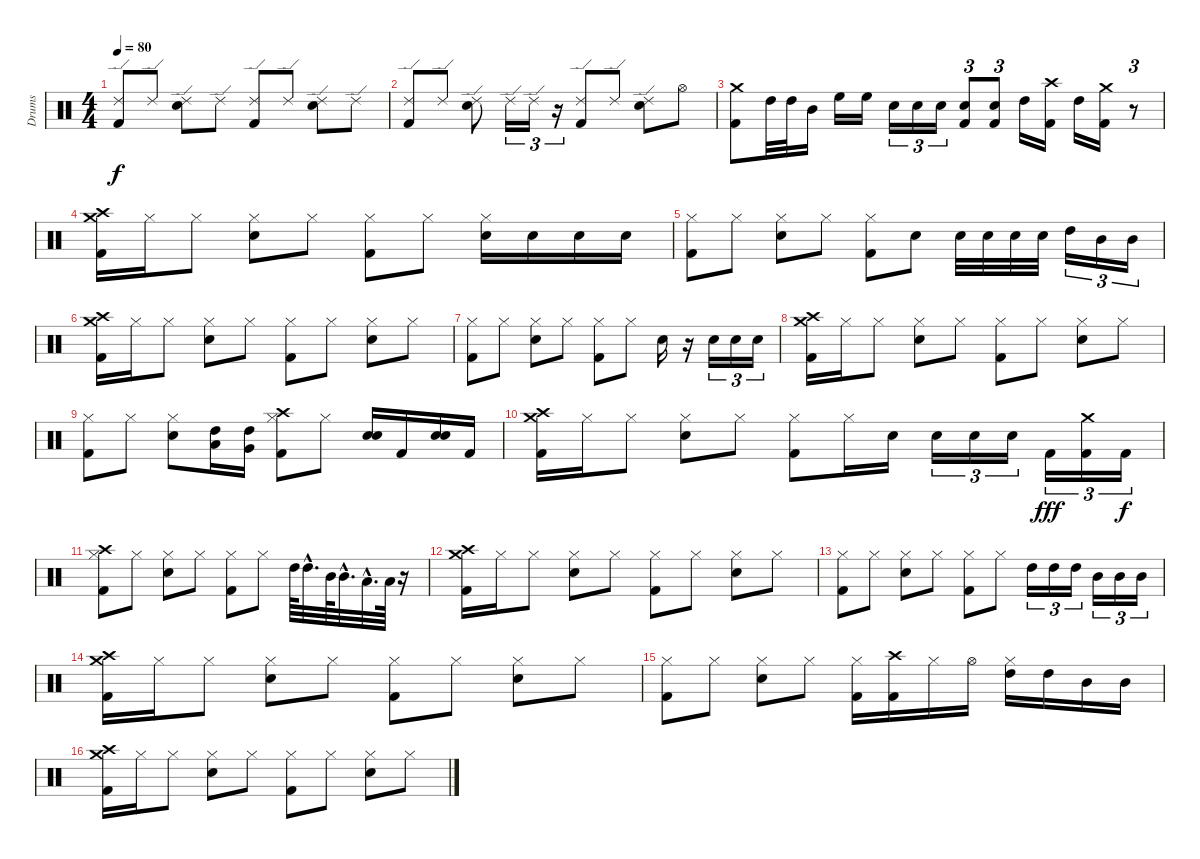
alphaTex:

\track ("Drums" "Drums") {instrument percussion}
\staff {score}
\articulation defaults
\ts (4 4)
\tempo 80
\clef neutral
\ks c
("Ride (edge) 2" "Kick (hit) 2").8{dy f} "Ride (edge) 2".8 ("Ride (edge) 2" "Snare (hit) 2").8 "Ride (edge) 2".8 ("Ride (edge) 2" "Kick (hit) 2").8 "Ride (edge) 2".8 ("Ride (edge) 2" "Snare (hit) 2").8 "Ride (edge) 2".8 |
("Ride (edge) 2" "Kick (hit) 2").8 "Ride (edge) 2".8 ("Ride (edge) 2" "Snare (hit) 2").8 "Ride (edge) 2".16{tu (3 2)} "Ride (edge) 2".16{tu (3 2)} r.16{tu (3 2)} ("Ride (edge) 2" "Kick (hit) 2").8 "Ride (edge) 2".8 ("Ride (edge) 2" "Snare (hit) 2").8 "Hi-Hat (open)".8 |
("Kick (hit) 2" "Crash medium (hit)").8 "High Tom (hit)".32 "High Tom (hit)".32 "Mid Tom (hit)".16 "High Floor Tom (hit)".16 "High Floor Tom (hit)".16 "Snare (hit) 2".16{tu (3 2)} "Snare (hit) 2".16{tu (3 2)} "Snare (hit) 2".16{tu (3 2)} ("Snare (hit) 2" "Kick (hit) 2").8{tu (3 2)} ("Snare (hit) 2" "Kick (hit) 2").8{tu (3 2)} "High Tom (hit)".16 ("Crash high (hit)" "Kick (hit) 2").16 "High Tom (hit)".16 ("Crash medium (hit)" "Kick (hit) 2").16 r.8{tu (3 2)} |
("Crash medium (hit)" "Kick (hit) 2" "Crash high (hit)").16 "Hi-Hat (closed)".16 "Hi-Hat (closed)".8 ("Hi-Hat (closed)" "Snare (hit) 2").8 "Hi-Hat (closed)".8 ("Hi-Hat (closed)" "Kick (hit) 2").8 "Hi-Hat (closed)".8 ("Hi-Hat (closed)" "Snare (hit) 2").16 "Snare (hit) 2".16 "Snare (hit) 2".16 "Snare (hit) 2".16 |
("Hi-Hat (closed)" "Kick (hit) 2").8 "Hi-Hat (closed)".8 ("Hi-Hat (closed)" "Snare (hit) 2").8 "Hi-Hat (closed)".8 ("Kick (hit) 2" "Hi-Hat (closed)").8 "Snare (hit) 2".8 "Snare (hit) 2".32 "Snare (hit) 2".32 "Snare (hit) 2".32 "Snare (hit) 2".32 "High Tom (hit)".16{tu (3 2)} "Mid Tom (hit)".16{tu (3 2)} "Mid Tom (hit)".16{tu (3 2)} |
("Crash medium (hit)" "Kick (hit) 2" "Crash high (hit)").16 "Hi-Hat (closed)".16 "Hi-Hat (closed)".8 ("Hi-Hat (closed)" "Snare (hit) 2").8 "Hi-Hat (closed)".8 ("Hi-Hat (closed)" "Kick (hit) 2").8 "Hi-Hat (closed)".8 ("Hi-Hat (closed)" "Snare (hit) 2").8 "Hi-Hat (closed)".8 |
("Hi-Hat (closed)" "Kick (hit) 2").8 "Hi-Hat (closed)".8 ("Hi-Hat (closed)" "Snare (hit) 2").8 "Hi-Hat (closed)".8 ("Kick (hit) 2" "Hi-Hat (closed)").8 "Hi-Hat (closed)".8 "Snare (hit) 2".16 r.16 "Snare (hit) 2".16{tu (3 2)} "Snare (hit) 2".16{tu (3 2)} "Snare (hit) 2".16{tu (3 2)} |
("Crash medium (hit)" "Kick (hit) 2" "Crash high (hit)").16 "Hi-Hat (closed)".16 "Hi-Hat (closed)".8 ("Hi-Hat (closed)" "Snare (hit) 2").8 "Hi-Hat (closed)".8 ("Hi-Hat (closed)" "Kick (hit) 2").8 "Hi-Hat (closed)".8 ("Hi-Hat (closed)" "Snare (hit) 2").8 "Hi-Hat (closed)".8 |
("Hi-Hat (closed)" "Kick (hit) 2").8 "Hi-Hat (closed)".8 ("Hi-Hat (closed)" "Snare (hit) 2").8 ("Low Tom (hit)" "High Tom (hit)").16 ("Very Low Tom (hit)" "High Tom (hit)").16 ("Kick (hit) 2" "Hi-Hat (closed)" "Crash high (hit)").8 "Hi-Hat (closed)".8 ("Snare (hit) 2" "Snare (hit) 2").16 "Kick (hit) 2".16 ("Snare (hit) 2" "Snare (hit) 2").16 "Kick (hit) 2".16 |
("Crash medium (hit)" "Kick (hit) 2" "Crash high (hit)").16 "Hi-Hat (closed)".16 "Hi-Hat (closed)".8 ("Hi-Hat (closed)" "Snare (hit) 2").8 "Hi-Hat (closed)".8 ("Hi-Hat (closed)" "Kick (hit) 2").8 "Hi-Hat (closed)".16 "Snare (hit) 2".16 "Snare (hit) 2".16{tu (3 2)} "Snare (hit) 2".16{tu (3 2)} "Snare (hit) 2".16{tu (3 2)} "Kick (hit) 2".16{tu (3 2) dy fff} ("Crash medium (hit)" "Kick (hit) 2").16{tu (3 2)} "Kick (hit) 2".16{tu (3 2) dy f} |
("Hi-Hat (closed)" "Kick (hit) 2" "Crash high (hit)").8 "Hi-Hat (closed)".8 ("Hi-Hat (closed)" "Snare (hit) 2").8 "Hi-Hat (closed)".8 ("Kick (hit) 2" "Hi-Hat (closed)").8 "Hi-Hat (closed)".8 "High Tom (hit)".64 "High Tom (hit)"{hac}.32{d} "Mid Tom (hit)".64 "Mid Tom (hit)"{hac}.32{d} "Low Tom (hit)"{hac}.32{d} "Low Tom (hit)".64 r.16 |
("Crash medium (hit)" "Kick (hit) 2" "Crash high (hit)").16 "Hi-Hat (closed)".16 "Hi-Hat (closed)".8 ("Hi-Hat (closed)" "Snare (hit) 2").8 "Hi-Hat (closed)".8 ("Hi-Hat (closed)" "Kick (hit) 2").8 "Hi-Hat (closed)".8 ("Hi-Hat (closed)" "Snare (hit) 2").8 "Hi-Hat (closed)".8 |
("Hi-Hat (closed)" "Kick (hit) 2").8 "Hi-Hat (closed)".8 ("Hi-Hat (closed)" "Snare (hit) 2").8 "Hi-Hat (closed)".8 ("Kick (hit) 2" "Hi-Hat (closed)").8 "Hi-Hat (closed)".8 "High Tom (hit)".16{tu (3 2)} "High Tom (hit)".16{tu (3 2)} "High Tom (hit)".16{tu (3 2)} "Mid Tom (hit)".16{tu (3 2)} "Mid Tom (hit)".16{tu (3 2)} "Mid Tom (hit)".16{tu (3 2)} |
("Crash medium (hit)" "Kick (hit) 2" "Crash high (hit)").16 "Hi-Hat (closed)".16 "Hi-Hat (closed)".8 ("Hi-Hat (closed)" "Snare (hit) 2").8 "Hi-Hat (closed)".8 ("Hi-Hat (closed)" "Kick (hit) 2").8 "Hi-Hat (closed)".8 ("Hi-Hat (closed)" "Snare (hit) 2").8 "Hi-Hat (closed)".8 |
("Hi-Hat (closed)" "Kick (hit) 2").8 "Hi-Hat (closed)".8 ("Hi-Hat (closed)" "Snare (hit) 2").8 "Hi-Hat (closed)".8 ("Kick (hit) 2" "Hi-Hat (closed)").16 ("Crash high (hit)" "Kick (hit) 2").16 "Hi-Hat (closed)".16 "Hi-Hat (open)".16 ("High Tom (hit)" "Hi-Hat (closed)").16 "High Tom (hit)".16 "Mid Tom (hit)".16 "Mid Tom (hit)".16 |
("Crash medium (hit)" "Kick (hit) 2" "Crash high (hit)").16 "Hi-Hat (closed)".16 "Hi-Hat (closed)".8 ("Hi-Hat (closed)" "Snare (hit) 2").8 "Hi-Hat (closed)".8 ("Hi-Hat (closed)" "Kick (hit) 2").8 "Hi-Hat (closed)".8 ("Hi-Hat (closed)" "Snare (hit) 2").8 "Hi-Hat (closed)".8
